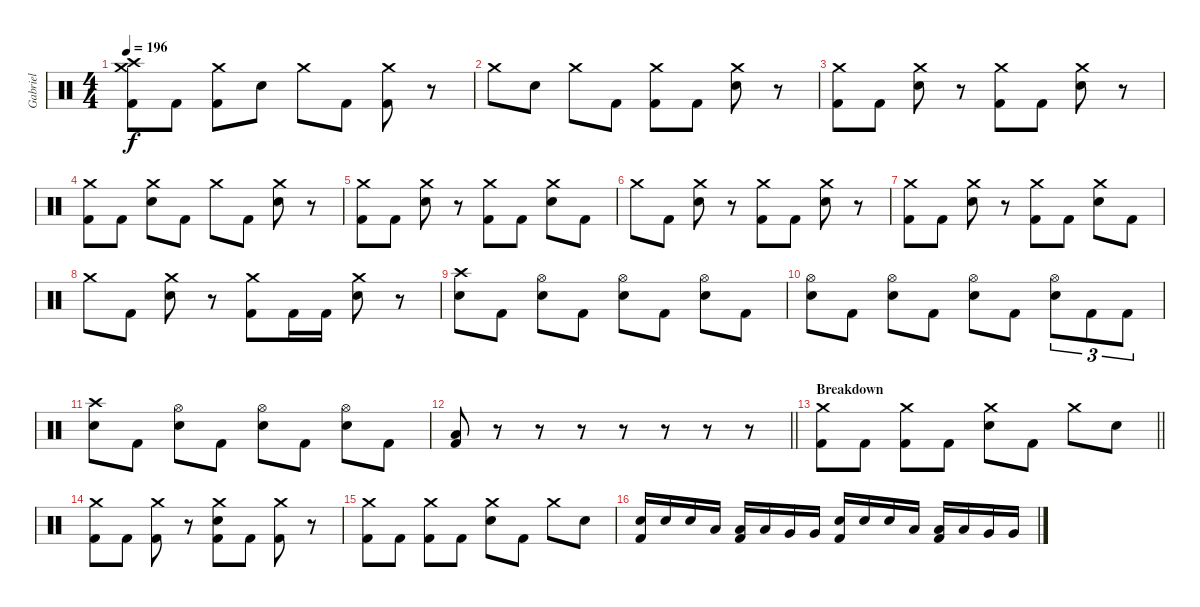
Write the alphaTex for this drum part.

\track ("Gabriel" "Gabriel") {instrument percussion}
\staff {score}
\articulation defaults
\ts (4 4)
\tempo 196
\clef neutral
\ks c
("Crash high (hit)" "Crash medium (hit)" "Kick (hit) 2").8{dy f} "Kick (hit) 2".8 ("Crash medium (hit)" "Kick (hit) 2").8 "Electric Snare (hit)".8 "Crash medium (hit)".8 "Kick (hit) 2".8 ("Crash medium (hit)" "Kick (hit) 2").8 r.8 |
"Crash medium (hit)".8 "Electric Snare (hit)".8 "Crash medium (hit)".8 "Kick (hit) 2".8 ("Crash medium (hit)" "Kick (hit) 2").8 "Kick (hit) 2".8 ("Crash medium (hit)" "Electric Snare (hit)").8 r.8 |
("Crash medium (hit)" "Kick (hit) 2").8 "Kick (hit) 2".8 ("Crash medium (hit)" "Electric Snare (hit)").8 r.8 ("Crash medium (hit)" "Kick (hit) 2").8 "Kick (hit) 2".8 ("Crash medium (hit)" "Electric Snare (hit)").8 r.8 |
("Crash medium (hit)" "Kick (hit) 2").8 "Kick (hit) 2".8 ("Crash medium (hit)" "Electric Snare (hit)").8 "Kick (hit) 2".8 "Crash medium (hit)".8 "Kick (hit) 2".8 ("Crash medium (hit)" "Electric Snare (hit)").8 r.8 |
("Crash medium (hit)" "Kick (hit) 2").8 "Kick (hit) 2".8 ("Crash medium (hit)" "Electric Snare (hit)").8 r.8 ("Crash medium (hit)" "Kick (hit) 2").8 "Kick (hit) 2".8 ("Crash medium (hit)" "Electric Snare (hit)").8 "Kick (hit) 2".8 |
"Crash medium (hit)".8 "Kick (hit) 2".8 ("Crash medium (hit)" "Electric Snare (hit)").8 r.8 ("Crash medium (hit)" "Kick (hit) 2").8 "Kick (hit) 2".8 ("Crash medium (hit)" "Electric Snare (hit)").8 r.8 |
("Crash medium (hit)" "Kick (hit) 2").8 "Kick (hit) 2".8 ("Crash medium (hit)" "Electric Snare (hit)").8 r.8 ("Crash medium (hit)" "Kick (hit) 2").8 "Kick (hit) 2".8 ("Crash medium (hit)" "Electric Snare (hit)").8 "Kick (hit) 2".8 |
"Crash medium (hit)".8 "Kick (hit) 2".8 ("Crash medium (hit)" "Electric Snare (hit)").8 r.8 ("Crash medium (hit)" "Kick (hit) 2").8 "Kick (hit) 2".16 "Kick (hit) 2".16 ("Crash medium (hit)" "Electric Snare (hit)").8 r.8 |
("Crash high (hit)" "Electric Snare (hit)").8 "Kick (hit) 2".8 ("Hi-Hat (open)" "Electric Snare (hit)").8 "Kick (hit) 2".8 ("Hi-Hat (open)" "Electric Snare (hit)").8 "Kick (hit) 2".8 ("Hi-Hat (open)" "Electric Snare (hit)").8 "Kick (hit) 2".8 |
("Hi-Hat (open)" "Electric Snare (hit)").8 "Kick (hit) 2".8 ("Hi-Hat (open)" "Electric Snare (hit)").8 "Kick (hit) 2".8 ("Hi-Hat (open)" "Electric Snare (hit)").8 "Kick (hit) 2".8 ("Hi-Hat (open)" "Electric Snare (hit)").8{tu (3 2)} "Kick (hit) 2".8{tu (3 2)} "Kick (hit) 2".8{tu (3 2)} |
("Crash high (hit)" "Electric Snare (hit)").8 "Kick (hit) 2".8 ("Hi-Hat (open)" "Electric Snare (hit)").8 "Kick (hit) 2".8 ("Hi-Hat (open)" "Electric Snare (hit)").8 "Kick (hit) 2".8 ("Hi-Hat (open)" "Electric Snare (hit)").8 "Kick (hit) 2".8 |
\barLineRight lightlight
("Low Tom (hit)" "Kick (hit) 2").8 r.8 r.8 r.8 r.8 r.8 r.8 r.8 |
\section ("" "Breakdown")
\barLineRight lightlight
("Crash medium (hit)" "Kick (hit) 2").8 "Kick (hit) 2".8 ("Crash medium (hit)" "Kick (hit) 2").8 "Kick (hit) 2".8 ("Crash medium (hit)" "Electric Snare (hit)").8 "Kick (hit) 2".8 "Crash medium (hit)".8 "Electric Snare (hit)".8 |
("Crash medium (hit)" "Kick (hit) 2").8 "Kick (hit) 2".8 ("Crash medium (hit)" "Kick (hit) 2").8 r.8 ("Crash medium (hit)" "Electric Snare (hit)" "Kick (hit) 2").8 "Kick (hit) 2".8 ("Crash medium (hit)" "Kick (hit) 2").8 r.8 |
("Crash medium (hit)" "Kick (hit) 2").8 "Kick (hit) 2".8 ("Crash medium (hit)" "Kick (hit) 2").8 "Kick (hit) 2".8 ("Crash medium (hit)" "Electric Snare (hit)").8 "Kick (hit) 2".8 "Crash medium (hit)".8 "Electric Snare (hit)".8 |
("Electric Snare (hit)" "Kick (hit) 2").16 "Electric Snare (hit)".16 "Electric Snare (hit)".16 "Low Tom (hit)".16 ("Low Tom (hit)" "Kick (hit) 2").16 "Low Tom (hit)".16 "Very Low Tom (hit)".16 "Very Low Tom (hit)".16 ("Electric Snare (hit)" "Kick (hit) 2").16 "Electric Snare (hit)".16 "Electric Snare (hit)".16 "Low Tom (hit)".16 ("Low Tom (hit)" "Kick (hit) 2").16 "Low Tom (hit)".16 "Very Low Tom (hit)".16 "Very Low Tom (hit)".16
